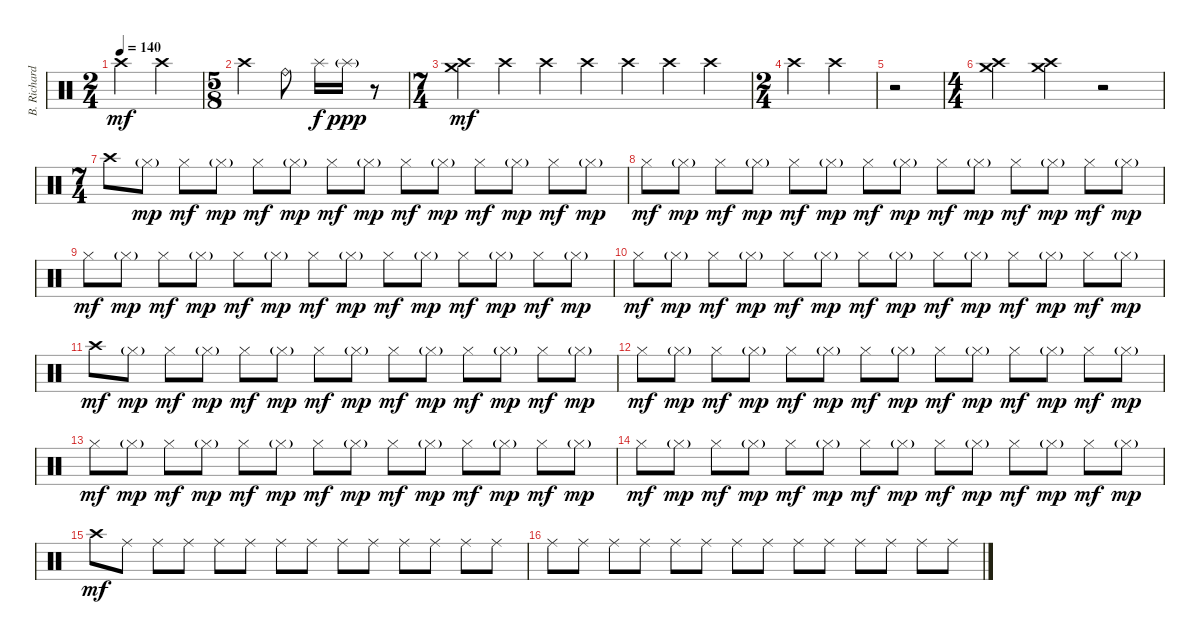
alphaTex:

\track ("B. Richardson Drums" "B. Richard") {instrument percussion}
\staff {score}
\articulation defaults
\ts (2 4)
\tempo 140
\clef neutral
\ks c "Crash high (hit)".4{dy mf} "Crash high (hit)".4
|
\ts (5 8)
"Crash high (hit)".4 "Ride (bell)".8 "Splash (hit)".16{dy f} "Splash (hit)"{g}.16{dy ppp} r.8 |
\ts (7 4)
("Crash high (hit)" "Crash medium (hit)").4{dy mf} "Crash high (hit)".4 "Crash high (hit)".4 "Crash high (hit)".4 "Crash high (hit)".4 "Crash high (hit)".4 "Crash high (hit)".4 |
\ts (2 4)
"Crash high (hit)".4 "Crash high (hit)".4 |
r.2 |
\ts (4 4)
("Crash high (hit)" "Crash medium (hit)").4 ("Crash medium (hit)" "Crash high (hit)").4 r.2 |
\ts (7 4)
"Crash high (hit)".8 "Hi-Hat (closed)"{g}.8{dy mp} "Hi-Hat (closed)".8{dy mf} "Hi-Hat (closed)"{g}.8{dy mp} "Hi-Hat (closed)".8{dy mf} "Hi-Hat (closed)"{g}.8{dy mp} "Hi-Hat (closed)".8{dy mf} "Hi-Hat (closed)"{g}.8{dy mp} "Hi-Hat (closed)".8{dy mf} "Hi-Hat (closed)"{g}.8{dy mp} "Hi-Hat (closed)".8{dy mf} "Hi-Hat (closed)"{g}.8{dy mp} "Hi-Hat (closed)".8{dy mf} "Hi-Hat (closed)"{g}.8{dy mp} |
"Hi-Hat (closed)".8{dy mf} "Hi-Hat (closed)"{g}.8{dy mp} "Hi-Hat (closed)".8{dy mf} "Hi-Hat (closed)"{g}.8{dy mp} "Hi-Hat (closed)".8{dy mf} "Hi-Hat (closed)"{g}.8{dy mp} "Hi-Hat (closed)".8{dy mf} "Hi-Hat (closed)"{g}.8{dy mp} "Hi-Hat (closed)".8{dy mf} "Hi-Hat (closed)"{g}.8{dy mp} "Hi-Hat (closed)".8{dy mf} "Hi-Hat (closed)"{g}.8{dy mp} "Hi-Hat (closed)".8{dy mf} "Hi-Hat (closed)"{g}.8{dy mp} |
"Hi-Hat (closed)".8{dy mf} "Hi-Hat (closed)"{g}.8{dy mp} "Hi-Hat (closed)".8{dy mf} "Hi-Hat (closed)"{g}.8{dy mp} "Hi-Hat (closed)".8{dy mf} "Hi-Hat (closed)"{g}.8{dy mp} "Hi-Hat (closed)".8{dy mf} "Hi-Hat (closed)"{g}.8{dy mp} "Hi-Hat (closed)".8{dy mf} "Hi-Hat (closed)"{g}.8{dy mp} "Hi-Hat (closed)".8{dy mf} "Hi-Hat (closed)"{g}.8{dy mp} "Hi-Hat (closed)".8{dy mf} "Hi-Hat (closed)"{g}.8{dy mp} |
"Hi-Hat (closed)".8{dy mf} "Hi-Hat (closed)"{g}.8{dy mp} "Hi-Hat (closed)".8{dy mf} "Hi-Hat (closed)"{g}.8{dy mp} "Hi-Hat (closed)".8{dy mf} "Hi-Hat (closed)"{g}.8{dy mp} "Hi-Hat (closed)".8{dy mf} "Hi-Hat (closed)"{g}.8{dy mp} "Hi-Hat (closed)".8{dy mf} "Hi-Hat (closed)"{g}.8{dy mp} "Hi-Hat (closed)".8{dy mf} "Hi-Hat (closed)"{g}.8{dy mp} "Hi-Hat (closed)".8{dy mf} "Hi-Hat (closed)"{g}.8{dy mp} |
"Crash high (hit)".8{dy mf} "Hi-Hat (closed)"{g}.8{dy mp} "Hi-Hat (closed)".8{dy mf} "Hi-Hat (closed)"{g}.8{dy mp} "Hi-Hat (closed)".8{dy mf} "Hi-Hat (closed)"{g}.8{dy mp} "Hi-Hat (closed)".8{dy mf} "Hi-Hat (closed)"{g}.8{dy mp} "Hi-Hat (closed)".8{dy mf} "Hi-Hat (closed)"{g}.8{dy mp} "Hi-Hat (closed)".8{dy mf} "Hi-Hat (closed)"{g}.8{dy mp} "Hi-Hat (closed)".8{dy mf} "Hi-Hat (closed)"{g}.8{dy mp} |
"Hi-Hat (closed)".8{dy mf} "Hi-Hat (closed)"{g}.8{dy mp} "Hi-Hat (closed)".8{dy mf} "Hi-Hat (closed)"{g}.8{dy mp} "Hi-Hat (closed)".8{dy mf} "Hi-Hat (closed)"{g}.8{dy mp} "Hi-Hat (closed)".8{dy mf} "Hi-Hat (closed)"{g}.8{dy mp} "Hi-Hat (closed)".8{dy mf} "Hi-Hat (closed)"{g}.8{dy mp} "Hi-Hat (closed)".8{dy mf} "Hi-Hat (closed)"{g}.8{dy mp} "Hi-Hat (closed)".8{dy mf} "Hi-Hat (closed)"{g}.8{dy mp} |
"Hi-Hat (closed)".8{dy mf} "Hi-Hat (closed)"{g}.8{dy mp} "Hi-Hat (closed)".8{dy mf} "Hi-Hat (closed)"{g}.8{dy mp} "Hi-Hat (closed)".8{dy mf} "Hi-Hat (closed)"{g}.8{dy mp} "Hi-Hat (closed)".8{dy mf} "Hi-Hat (closed)"{g}.8{dy mp} "Hi-Hat (closed)".8{dy mf} "Hi-Hat (closed)"{g}.8{dy mp} "Hi-Hat (closed)".8{dy mf} "Hi-Hat (closed)"{g}.8{dy mp} "Hi-Hat (closed)".8{dy mf} "Hi-Hat (closed)"{g}.8{dy mp} |
"Hi-Hat (closed)".8{dy mf} "Hi-Hat (closed)"{g}.8{dy mp} "Hi-Hat (closed)".8{dy mf} "Hi-Hat (closed)"{g}.8{dy mp} "Hi-Hat (closed)".8{dy mf} "Hi-Hat (closed)"{g}.8{dy mp} "Hi-Hat (closed)".8{dy mf} "Hi-Hat (closed)"{g}.8{dy mp} "Hi-Hat (closed)".8{dy mf} "Hi-Hat (closed)"{g}.8{dy mp} "Hi-Hat (closed)".8{dy mf} "Hi-Hat (closed)"{g}.8{dy mp} "Hi-Hat (closed)".8{dy mf} "Hi-Hat (closed)"{g}.8{dy mp} |
"Crash high (hit)".8{dy mf} "Ride (middle)".8 "Ride (middle)".8 "Ride (middle)".8 "Ride (middle)".8 "Ride (middle)".8 "Ride (middle)".8 "Ride (middle)".8 "Ride (middle)".8 "Ride (middle)".8 "Ride (middle)".8 "Ride (middle)".8 "Ride (middle)".8 "Ride (middle)".8 |
"Ride (middle)".8 "Ride (middle)".8 "Ride (middle)".8 "Ride (middle)".8 "Ride (middle)".8 "Ride (middle)".8 "Ride (middle)".8 "Ride (middle)".8 "Ride (middle)".8 "Ride (middle)".8 "Ride (middle)".8 "Ride (middle)".8 "Ride (middle)".8 "Ride (middle)".8
